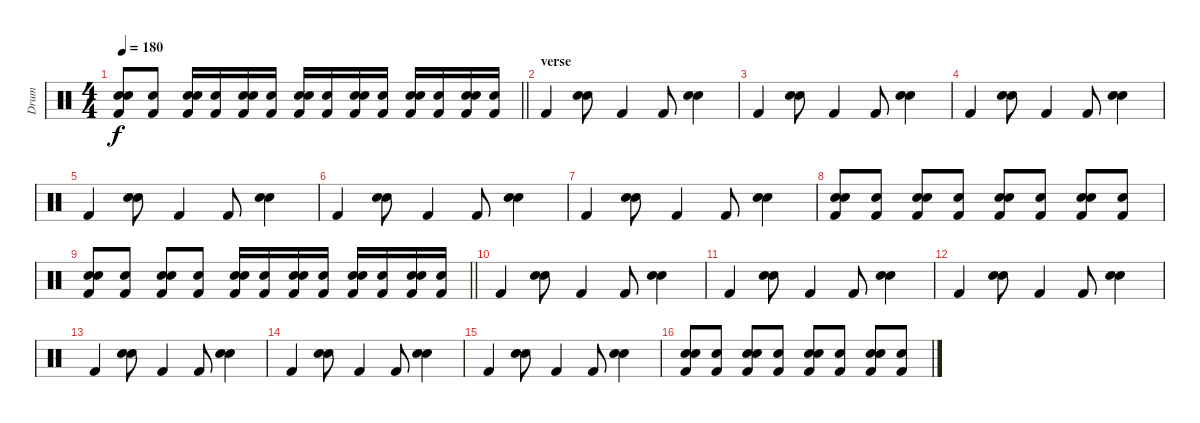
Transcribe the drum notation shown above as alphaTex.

\track ("Drum" "Drum") {instrument percussion}
\staff {score}
\articulation defaults
\ts (4 4)
\tempo 180
\clef neutral
\barLineRight lightlight
\ks c
("Kick (hit) 2" "Electric Snare (hit)" "Snare (hit) 2").8{dy f} ("Kick (hit) 2" "Electric Snare (hit)").8 ("Kick (hit) 2" "Electric Snare (hit)" "Snare (hit) 2").16 ("Kick (hit) 2" "Electric Snare (hit)").16 ("Kick (hit) 2" "Electric Snare (hit)" "Snare (hit) 2").16 ("Kick (hit) 2" "Electric Snare (hit)").16 ("Kick (hit) 2" "Electric Snare (hit)" "Snare (hit) 2").16 ("Kick (hit) 2" "Electric Snare (hit)").16 ("Kick (hit) 2" "Electric Snare (hit)" "Snare (hit) 2").16 ("Kick (hit) 2" "Electric Snare (hit)").16 ("Kick (hit) 2" "Electric Snare (hit)" "Snare (hit) 2").16 ("Kick (hit) 2" "Electric Snare (hit)").16 ("Kick (hit) 2" "Electric Snare (hit)" "Snare (hit) 2").16 ("Kick (hit) 2" "Electric Snare (hit)").16 |
\section ("" "verse")
"Kick (hit) 2".4 ("Snare (hit) 2" "Electric Snare (hit)").8 "Kick (hit) 2".4 "Kick (hit) 2".8 ("Snare (hit) 2" "Electric Snare (hit)").4 |
"Kick (hit) 2".4 ("Snare (hit) 2" "Electric Snare (hit)").8 "Kick (hit) 2".4 "Kick (hit) 2".8 ("Snare (hit) 2" "Electric Snare (hit)").4 |
"Kick (hit) 2".4 ("Snare (hit) 2" "Electric Snare (hit)").8 "Kick (hit) 2".4 "Kick (hit) 2".8 ("Snare (hit) 2" "Electric Snare (hit)").4 |
"Kick (hit) 2".4 ("Snare (hit) 2" "Electric Snare (hit)").8 "Kick (hit) 2".4 "Kick (hit) 2".8 ("Snare (hit) 2" "Electric Snare (hit)").4 |
"Kick (hit) 2".4 ("Snare (hit) 2" "Electric Snare (hit)").8 "Kick (hit) 2".4 "Kick (hit) 2".8 ("Snare (hit) 2" "Electric Snare (hit)").4 |
"Kick (hit) 2".4 ("Snare (hit) 2" "Electric Snare (hit)").8 "Kick (hit) 2".4 "Kick (hit) 2".8 ("Snare (hit) 2" "Electric Snare (hit)").4 |
("Kick (hit) 2" "Electric Snare (hit)" "Snare (hit) 2").8 ("Kick (hit) 2" "Electric Snare (hit)").8 ("Kick (hit) 2" "Electric Snare (hit)" "Snare (hit) 2").8 ("Kick (hit) 2" "Electric Snare (hit)").8 ("Kick (hit) 2" "Electric Snare (hit)" "Snare (hit) 2").8 ("Kick (hit) 2" "Electric Snare (hit)").8 ("Kick (hit) 2" "Electric Snare (hit)" "Snare (hit) 2").8 ("Kick (hit) 2" "Electric Snare (hit)").8 |
\barLineRight lightlight
("Kick (hit) 2" "Electric Snare (hit)" "Snare (hit) 2").8 ("Kick (hit) 2" "Electric Snare (hit)").8 ("Kick (hit) 2" "Electric Snare (hit)" "Snare (hit) 2").8 ("Kick (hit) 2" "Electric Snare (hit)").8 ("Kick (hit) 2" "Electric Snare (hit)" "Snare (hit) 2").16 ("Kick (hit) 2" "Electric Snare (hit)").16 ("Kick (hit) 2" "Electric Snare (hit)" "Snare (hit) 2").16 ("Kick (hit) 2" "Electric Snare (hit)").16 ("Kick (hit) 2" "Electric Snare (hit)" "Snare (hit) 2").16 ("Kick (hit) 2" "Electric Snare (hit)").16 ("Kick (hit) 2" "Electric Snare (hit)" "Snare (hit) 2").16 ("Kick (hit) 2" "Electric Snare (hit)").16 |
"Kick (hit) 2".4 ("Snare (hit) 2" "Electric Snare (hit)").8 "Kick (hit) 2".4 "Kick (hit) 2".8 ("Snare (hit) 2" "Electric Snare (hit)").4 |
"Kick (hit) 2".4 ("Snare (hit) 2" "Electric Snare (hit)").8 "Kick (hit) 2".4 "Kick (hit) 2".8 ("Snare (hit) 2" "Electric Snare (hit)").4 |
"Kick (hit) 2".4 ("Snare (hit) 2" "Electric Snare (hit)").8 "Kick (hit) 2".4 "Kick (hit) 2".8 ("Snare (hit) 2" "Electric Snare (hit)").4 |
"Kick (hit) 2".4 ("Snare (hit) 2" "Electric Snare (hit)").8 "Kick (hit) 2".4 "Kick (hit) 2".8 ("Snare (hit) 2" "Electric Snare (hit)").4 |
"Kick (hit) 2".4 ("Snare (hit) 2" "Electric Snare (hit)").8 "Kick (hit) 2".4 "Kick (hit) 2".8 ("Snare (hit) 2" "Electric Snare (hit)").4 |
"Kick (hit) 2".4 ("Snare (hit) 2" "Electric Snare (hit)").8 "Kick (hit) 2".4 "Kick (hit) 2".8 ("Snare (hit) 2" "Electric Snare (hit)").4 |
("Kick (hit) 2" "Electric Snare (hit)" "Snare (hit) 2").8 ("Kick (hit) 2" "Electric Snare (hit)").8 ("Kick (hit) 2" "Electric Snare (hit)" "Snare (hit) 2").8 ("Kick (hit) 2" "Electric Snare (hit)").8 ("Kick (hit) 2" "Electric Snare (hit)" "Snare (hit) 2").8 ("Kick (hit) 2" "Electric Snare (hit)").8 ("Kick (hit) 2" "Electric Snare (hit)" "Snare (hit) 2").8 ("Kick (hit) 2" "Electric Snare (hit)").8
